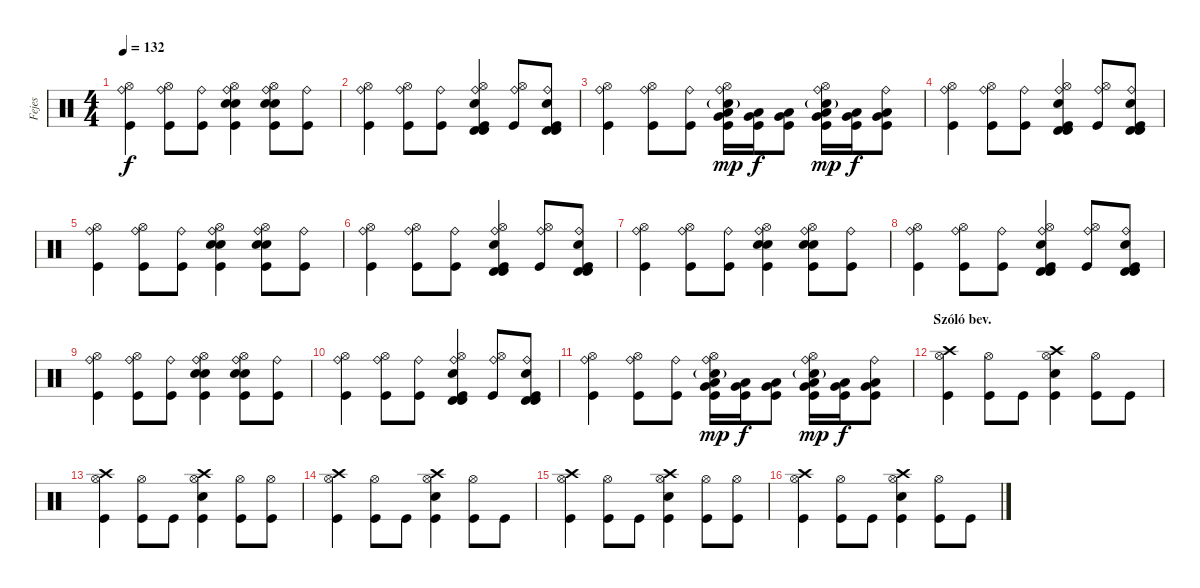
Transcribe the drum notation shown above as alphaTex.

\track ("Fejes" "Fejes") {instrument percussion}
\staff {score}
\articulation defaults
\ts (4 4)
\tempo 132
\clef neutral
\ks c
("Ride (bell)" "Hi-Hat (open)" "Kick (hit)").4{dy f} ("Ride (bell)" "Hi-Hat (open)" "Kick (hit)").8 ("Ride (bell)" "Kick (hit)").8 ("Ride (bell)" "Hi-Hat (open)" "Snare (hit) 2" "Snare (hit) 2" "Kick (hit)").4 ("Ride (bell)" "Hi-Hat (open)" "Snare (hit) 2" "Snare (hit) 2" "Kick (hit)").8 ("Ride (bell)" "Kick (hit)").8 |
("Ride (bell)" "Hi-Hat (open)" "Kick (hit)").4 ("Ride (bell)" "Hi-Hat (open)" "Kick (hit)").8 ("Ride (bell)" "Kick (hit)").8 ("Ride (bell)" "Hi-Hat (open)" "Snare (hit) 2" "Timbale high (hit)" "Timbale high (hit)" "Kick (hit)").4 ("Ride (bell)" "Hi-Hat (open)" "Kick (hit)").8 ("Ride (bell)" "Snare (hit) 2" "Timbale high (hit)" "Timbale high (hit)" "Kick (hit)").8 |
("Ride (bell)" "Hi-Hat (open)" "Kick (hit)").4 ("Ride (bell)" "Hi-Hat (open)" "Kick (hit)").8 ("Ride (bell)" "Kick (hit)").8 ("Ride (bell)" "Hi-Hat (open)" "Snare (hit) 2"{g} "Low Floor Tom (hit)" "Very Low Tom (hit)" "Kick (hit)").16{dy mp} ("Low Floor Tom (hit)" "Very Low Tom (hit)" "Kick (hit)").16{dy f} ("Low Floor Tom (hit)" "Very Low Tom (hit)" "Kick (hit)").8 ("Ride (bell)" "Hi-Hat (open)" "Snare (hit) 2"{g} "Low Floor Tom (hit)" "Very Low Tom (hit)" "Kick (hit)").16{dy mp} ("Low Floor Tom (hit)" "Very Low Tom (hit)" "Kick (hit)").16{dy f} ("Ride (bell)" "Low Floor Tom (hit)" "Very Low Tom (hit)" "Kick (hit)").8 |
("Ride (bell)" "Hi-Hat (open)" "Kick (hit)").4 ("Ride (bell)" "Hi-Hat (open)" "Kick (hit)").8 ("Ride (bell)" "Kick (hit)").8 ("Ride (bell)" "Hi-Hat (open)" "Snare (hit) 2" "Timbale high (hit)" "Timbale high (hit)" "Kick (hit)").4 ("Ride (bell)" "Hi-Hat (open)" "Kick (hit)").8 ("Ride (bell)" "Snare (hit) 2" "Timbale high (hit)" "Timbale high (hit)" "Kick (hit)").8 |
("Ride (bell)" "Hi-Hat (open)" "Kick (hit)").4 ("Ride (bell)" "Hi-Hat (open)" "Kick (hit)").8 ("Ride (bell)" "Kick (hit)").8 ("Ride (bell)" "Hi-Hat (open)" "Snare (hit) 2" "Snare (hit) 2" "Kick (hit)").4 ("Ride (bell)" "Hi-Hat (open)" "Snare (hit) 2" "Snare (hit) 2" "Kick (hit)").8 ("Ride (bell)" "Kick (hit)").8 |
("Ride (bell)" "Hi-Hat (open)" "Kick (hit)").4 ("Ride (bell)" "Hi-Hat (open)" "Kick (hit)").8 ("Ride (bell)" "Kick (hit)").8 ("Ride (bell)" "Hi-Hat (open)" "Snare (hit) 2" "Timbale high (hit)" "Timbale high (hit)" "Kick (hit)").4 ("Ride (bell)" "Hi-Hat (open)" "Kick (hit)").8 ("Ride (bell)" "Snare (hit) 2" "Timbale high (hit)" "Timbale high (hit)" "Kick (hit)").8 |
("Ride (bell)" "Hi-Hat (open)" "Kick (hit)").4 ("Ride (bell)" "Hi-Hat (open)" "Kick (hit)").8 ("Ride (bell)" "Kick (hit)").8 ("Ride (bell)" "Hi-Hat (open)" "Snare (hit) 2" "Snare (hit) 2" "Kick (hit)").4 ("Ride (bell)" "Hi-Hat (open)" "Snare (hit) 2" "Snare (hit) 2" "Kick (hit)").8 ("Ride (bell)" "Kick (hit)").8 |
("Ride (bell)" "Hi-Hat (open)" "Kick (hit)").4 ("Ride (bell)" "Hi-Hat (open)" "Kick (hit)").8 ("Ride (bell)" "Kick (hit)").8 ("Ride (bell)" "Hi-Hat (open)" "Snare (hit) 2" "Timbale high (hit)" "Timbale high (hit)" "Kick (hit)").4 ("Ride (bell)" "Hi-Hat (open)" "Kick (hit)").8 ("Ride (bell)" "Snare (hit) 2" "Timbale high (hit)" "Timbale high (hit)" "Kick (hit)").8 |
("Ride (bell)" "Hi-Hat (open)" "Kick (hit)").4 ("Ride (bell)" "Hi-Hat (open)" "Kick (hit)").8 ("Ride (bell)" "Kick (hit)").8 ("Ride (bell)" "Hi-Hat (open)" "Snare (hit) 2" "Snare (hit) 2" "Kick (hit)").4 ("Ride (bell)" "Hi-Hat (open)" "Snare (hit) 2" "Snare (hit) 2" "Kick (hit)").8 ("Ride (bell)" "Kick (hit)").8 |
("Ride (bell)" "Hi-Hat (open)" "Kick (hit)").4 ("Ride (bell)" "Hi-Hat (open)" "Kick (hit)").8 ("Ride (bell)" "Kick (hit)").8 ("Ride (bell)" "Hi-Hat (open)" "Snare (hit) 2" "Timbale high (hit)" "Timbale high (hit)" "Kick (hit)").4 ("Ride (bell)" "Hi-Hat (open)" "Kick (hit)").8 ("Ride (bell)" "Snare (hit) 2" "Timbale high (hit)" "Timbale high (hit)" "Kick (hit)").8 |
("Ride (bell)" "Hi-Hat (open)" "Kick (hit)").4 ("Ride (bell)" "Hi-Hat (open)" "Kick (hit)").8 ("Ride (bell)" "Kick (hit)").8 ("Ride (bell)" "Hi-Hat (open)" "Snare (hit) 2"{g} "Low Floor Tom (hit)" "Very Low Tom (hit)" "Kick (hit)").16{dy mp} ("Low Floor Tom (hit)" "Very Low Tom (hit)" "Kick (hit)").16{dy f} ("Low Floor Tom (hit)" "Very Low Tom (hit)" "Kick (hit)").8 ("Ride (bell)" "Hi-Hat (open)" "Snare (hit) 2"{g} "Low Floor Tom (hit)" "Very Low Tom (hit)" "Kick (hit)").16{dy mp} ("Low Floor Tom (hit)" "Very Low Tom (hit)" "Kick (hit)").16{dy f} ("Ride (bell)" "Low Floor Tom (hit)" "Very Low Tom (hit)" "Kick (hit)").8 |
\section ("" "Szóló bev.")
("Crash high (hit)" "Hi-Hat (open)" "Kick (hit)").4 ("Hi-Hat (open)" "Kick (hit)").8 "Kick (hit)".8 ("Crash high (hit)" "Hi-Hat (open)" "Snare (hit) 2" "Kick (hit)").4 ("Hi-Hat (open)" "Kick (hit)").8 "Kick (hit)".8 |
("Crash high (hit)" "Hi-Hat (open)" "Kick (hit)").4 ("Hi-Hat (open)" "Kick (hit)").8 "Kick (hit)".8 ("Crash high (hit)" "Hi-Hat (open)" "Snare (hit) 2" "Kick (hit)").4 ("Hi-Hat (open)" "Kick (hit)").8 ("Hi-Hat (open)" "Kick (hit)").8 |
("Crash high (hit)" "Hi-Hat (open)" "Kick (hit)").4 ("Hi-Hat (open)" "Kick (hit)").8 "Kick (hit)".8 ("Crash high (hit)" "Hi-Hat (open)" "Snare (hit) 2" "Kick (hit)").4 ("Hi-Hat (open)" "Kick (hit)").8 "Kick (hit)".8 |
("Crash high (hit)" "Hi-Hat (open)" "Kick (hit)").4 ("Hi-Hat (open)" "Kick (hit)").8 "Kick (hit)".8 ("Crash high (hit)" "Hi-Hat (open)" "Snare (hit) 2" "Kick (hit)").4 ("Hi-Hat (open)" "Kick (hit)").8 ("Hi-Hat (open)" "Kick (hit)").8 |
("Crash high (hit)" "Hi-Hat (open)" "Kick (hit)").4 ("Hi-Hat (open)" "Kick (hit)").8 "Kick (hit)".8 ("Crash high (hit)" "Hi-Hat (open)" "Snare (hit) 2" "Kick (hit)").4 ("Hi-Hat (open)" "Kick (hit)").8 "Kick (hit)".8
